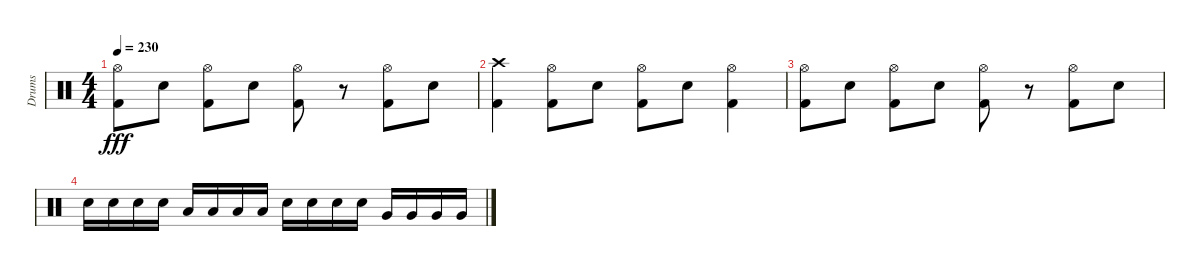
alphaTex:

\track ("Drums" "Drums") {instrument percussion}
\staff {score}
\articulation defaults
\ts (4 4)
\tempo 230
\clef neutral
\ks c
("Hi-Hat (open)" "Kick (hit) 2").8{dy fff} "Electric Snare (hit)".8 ("Hi-Hat (open)" "Kick (hit) 2").8 "Electric Snare (hit)".8 ("Hi-Hat (open)" "Kick (hit) 2").8 r.8 ("Hi-Hat (open)" "Kick (hit) 2").8 "Electric Snare (hit)".8 |
("Crash high (hit)" "Kick (hit) 2").4 ("Hi-Hat (open)" "Kick (hit) 2").8 "Electric Snare (hit)".8 ("Hi-Hat (open)" "Kick (hit) 2").8 "Electric Snare (hit)".8 ("Hi-Hat (open)" "Kick (hit) 2").4 |
("Hi-Hat (open)" "Kick (hit) 2").8 "Electric Snare (hit)".8 ("Hi-Hat (open)" "Kick (hit) 2").8 "Electric Snare (hit)".8 ("Hi-Hat (open)" "Kick (hit) 2").8 r.8 ("Hi-Hat (open)" "Kick (hit) 2").8 "Electric Snare (hit)".8 |
"Electric Snare (hit)".16 "Electric Snare (hit)".16 "Electric Snare (hit)".16 "Electric Snare (hit)".16 "Low Tom (hit)".16 "Low Tom (hit)".16 "Low Tom (hit)".16 "Low Tom (hit)".16 "Electric Snare (hit)".16 "Electric Snare (hit)".16 "Electric Snare (hit)".16 "Electric Snare (hit)".16 "Very Low Tom (hit)".16 "Very Low Tom (hit)".16 "Very Low Tom (hit)".16 "Very Low Tom (hit)".16
